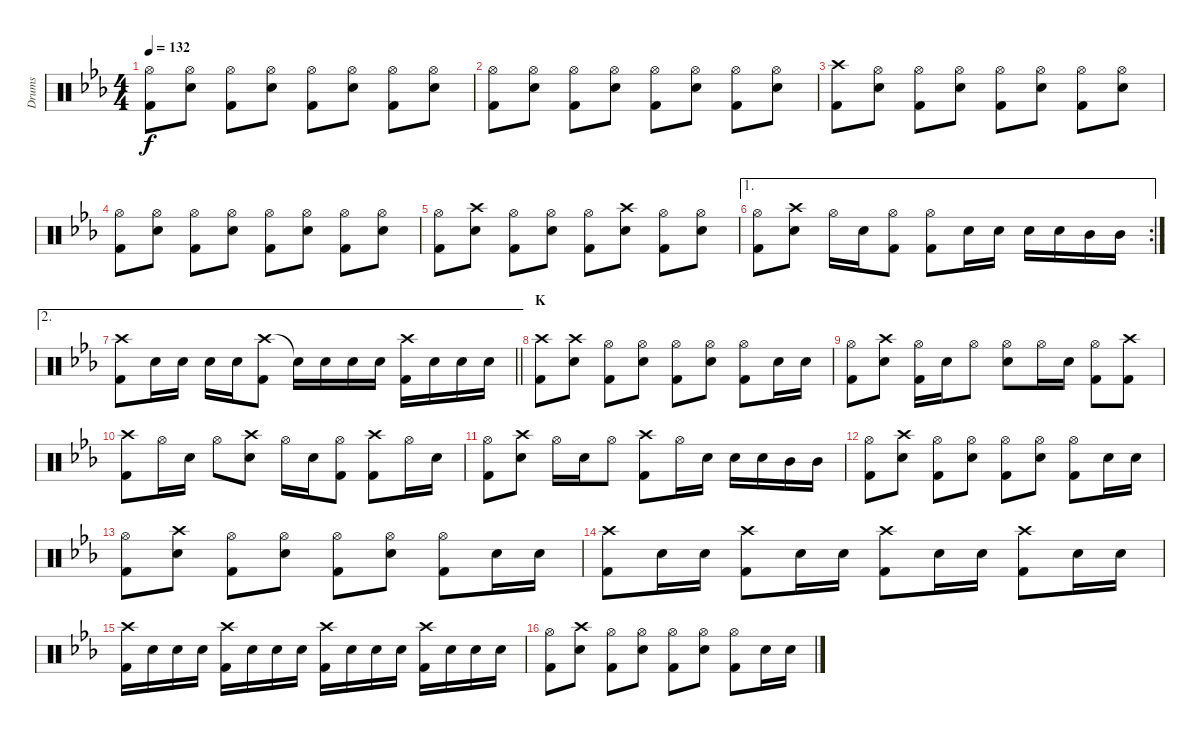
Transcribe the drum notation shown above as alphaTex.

\track ("Drums" "Drums") {instrument percussion}
\staff {score}
\articulation defaults
\ts (4 4)
\tempo 132
\clef neutral
\ks eb
("Hi-Hat (open)" "Kick (hit) 2").8{dy f} ("Hi-Hat (open)" "Snare (hit) 2").8 ("Hi-Hat (open)" "Kick (hit) 2").8 ("Hi-Hat (open)" "Snare (hit) 2").8 ("Hi-Hat (open)" "Kick (hit) 2").8 ("Hi-Hat (open)" "Snare (hit) 2").8 ("Hi-Hat (open)" "Kick (hit) 2").8 ("Hi-Hat (open)" "Snare (hit) 2").8 |
("Hi-Hat (open)" "Kick (hit) 2").8 ("Hi-Hat (open)" "Snare (hit) 2").8 ("Hi-Hat (open)" "Kick (hit) 2").8 ("Hi-Hat (open)" "Snare (hit) 2").8 ("Hi-Hat (open)" "Kick (hit) 2").8 ("Hi-Hat (open)" "Snare (hit) 2").8 ("Hi-Hat (open)" "Kick (hit) 2").8 ("Hi-Hat (open)" "Snare (hit) 2").8 |
("Crash high (hit)" "Kick (hit) 2").8 ("Hi-Hat (open)" "Snare (hit) 2").8 ("Hi-Hat (open)" "Kick (hit) 2").8 ("Hi-Hat (open)" "Snare (hit) 2").8 ("Hi-Hat (open)" "Kick (hit) 2").8 ("Hi-Hat (open)" "Snare (hit) 2").8 ("Hi-Hat (open)" "Kick (hit) 2").8 ("Hi-Hat (open)" "Snare (hit) 2").8 |
("Hi-Hat (open)" "Kick (hit) 2").8 ("Hi-Hat (open)" "Snare (hit) 2").8 ("Hi-Hat (open)" "Kick (hit) 2").8 ("Hi-Hat (open)" "Snare (hit) 2").8 ("Hi-Hat (open)" "Kick (hit) 2").8 ("Hi-Hat (open)" "Snare (hit) 2").8 ("Hi-Hat (open)" "Kick (hit) 2").8 ("Hi-Hat (open)" "Snare (hit) 2").8 |
("Hi-Hat (open)" "Kick (hit) 2").8 ("Crash high (hit)" "Snare (hit) 2").8 ("Hi-Hat (open)" "Kick (hit) 2").8 ("Hi-Hat (open)" "Snare (hit) 2").8 ("Hi-Hat (open)" "Kick (hit) 2").8 ("Crash high (hit)" "Snare (hit) 2").8 ("Hi-Hat (open)" "Kick (hit) 2").8 ("Hi-Hat (open)" "Snare (hit) 2").8 |
\ae 1
\rc 2
("Hi-Hat (open)" "Kick (hit) 2").8 ("Crash high (hit)" "Snare (hit) 2").8 "Hi-Hat (open)".16 "Snare (hit) 2".16 ("Hi-Hat (open)" "Kick (hit) 2").8 ("Hi-Hat (open)" "Kick (hit) 2").8 "Snare (hit) 2".16 "Snare (hit) 2".16 "Snare (hit) 2".16 "Snare (hit) 2".16 "Mid Tom (hit)".16 "Mid Tom (hit)".16 |
\ae 2
\barLineRight lightlight
("Crash high (hit)" "Kick (hit) 2").8 "Snare (hit) 2".16 "Snare (hit) 2".16 "Snare (hit) 2".16 "Snare (hit) 2".16 ("Crash high (hit)" "Kick (hit) 2").8 "Snare (hit)"{t}.16 "Snare (hit) 2".16 "Snare (hit) 2".16 "Snare (hit) 2".16 ("Crash high (hit)" "Kick (hit) 2").16 "Snare (hit) 2".16 "Snare (hit) 2".16 "Snare (hit) 2".16 |
\section ("" "K")
("Crash high (hit)" "Kick (hit) 2").8 ("Crash high (hit)" "Snare (hit) 2").8 ("Hi-Hat (open)" "Kick (hit) 2").8 ("Hi-Hat (open)" "Snare (hit) 2").8 ("Hi-Hat (open)" "Kick (hit) 2").8 ("Hi-Hat (open)" "Snare (hit) 2").8 ("Hi-Hat (open)" "Kick (hit) 2").8 "Snare (hit) 2".16 "Snare (hit) 2".16 |
("Hi-Hat (open)" "Kick (hit) 2").8 ("Crash high (hit)" "Snare (hit) 2").8 ("Hi-Hat (open)" "Kick (hit) 2").16 "Snare (hit) 2".16 "Hi-Hat (open)".8 ("Hi-Hat (open)" "Snare (hit) 2").8 "Hi-Hat (open)".16 "Snare (hit) 2".16 ("Hi-Hat (open)" "Kick (hit) 2").8 ("Crash high (hit)" "Kick (hit) 2").8 |
("Crash high (hit)" "Kick (hit) 2").8 "Hi-Hat (open)".16 "Snare (hit) 2".16 "Hi-Hat (open)".8 ("Crash high (hit)" "Snare (hit) 2").8 "Hi-Hat (open)".16 "Snare (hit) 2".16 ("Hi-Hat (open)" "Kick (hit) 2").8 ("Crash high (hit)" "Kick (hit) 2").8 "Hi-Hat (open)".16 "Snare (hit) 2".16 |
("Hi-Hat (open)" "Kick (hit) 2").8 ("Crash high (hit)" "Snare (hit) 2").8 "Hi-Hat (open)".16 "Snare (hit) 2".16 "Hi-Hat (open)".8 ("Crash high (hit)" "Kick (hit) 2").8 "Hi-Hat (open)".16 "Snare (hit) 2".16 "Snare (hit) 2".16 "Snare (hit) 2".16 "Mid Tom (hit)".16 "Mid Tom (hit)".16 |
("Hi-Hat (open)" "Kick (hit) 2").8 ("Crash high (hit)" "Snare (hit) 2").8 ("Hi-Hat (open)" "Kick (hit) 2").8 ("Hi-Hat (open)" "Snare (hit) 2").8 ("Hi-Hat (open)" "Kick (hit) 2").8 ("Hi-Hat (open)" "Snare (hit) 2").8 ("Hi-Hat (open)" "Kick (hit) 2").8 "Snare (hit) 2".16 "Snare (hit) 2".16 |
("Hi-Hat (open)" "Kick (hit) 2").8 ("Crash high (hit)" "Snare (hit) 2").8 ("Hi-Hat (open)" "Kick (hit) 2").8 ("Hi-Hat (open)" "Snare (hit) 2").8 ("Hi-Hat (open)" "Kick (hit) 2").8 ("Hi-Hat (open)" "Snare (hit) 2").8 ("Hi-Hat (open)" "Kick (hit) 2").8 "Snare (hit) 2".16 "Snare (hit) 2".16 |
("Crash high (hit)" "Kick (hit) 2").8 "Snare (hit) 2".16 "Snare (hit) 2".16 ("Crash high (hit)" "Kick (hit) 2").8 "Snare (hit) 2".16 "Snare (hit) 2".16 ("Crash high (hit)" "Kick (hit) 2").8 "Snare (hit) 2".16 "Snare (hit) 2".16 ("Crash high (hit)" "Kick (hit) 2").8 "Snare (hit) 2".16 "Snare (hit) 2".16 |
("Crash high (hit)" "Kick (hit) 2").16 "Snare (hit) 2".16 "Snare (hit) 2".16 "Snare (hit) 2".16 ("Crash high (hit)" "Kick (hit) 2").16 "Snare (hit) 2".16 "Snare (hit) 2".16 "Snare (hit) 2".16 ("Crash high (hit)" "Kick (hit) 2").16 "Snare (hit) 2".16 "Snare (hit) 2".16 "Snare (hit) 2".16 ("Crash high (hit)" "Kick (hit) 2").16 "Snare (hit) 2".16 "Snare (hit) 2".16 "Snare (hit) 2".16 |
("Hi-Hat (open)" "Kick (hit) 2").8 ("Crash high (hit)" "Snare (hit) 2").8 ("Hi-Hat (open)" "Kick (hit) 2").8 ("Hi-Hat (open)" "Snare (hit) 2").8 ("Hi-Hat (open)" "Kick (hit) 2").8 ("Hi-Hat (open)" "Snare (hit) 2").8 ("Hi-Hat (open)" "Kick (hit) 2").8 "Snare (hit) 2".16 "Snare (hit) 2".16
